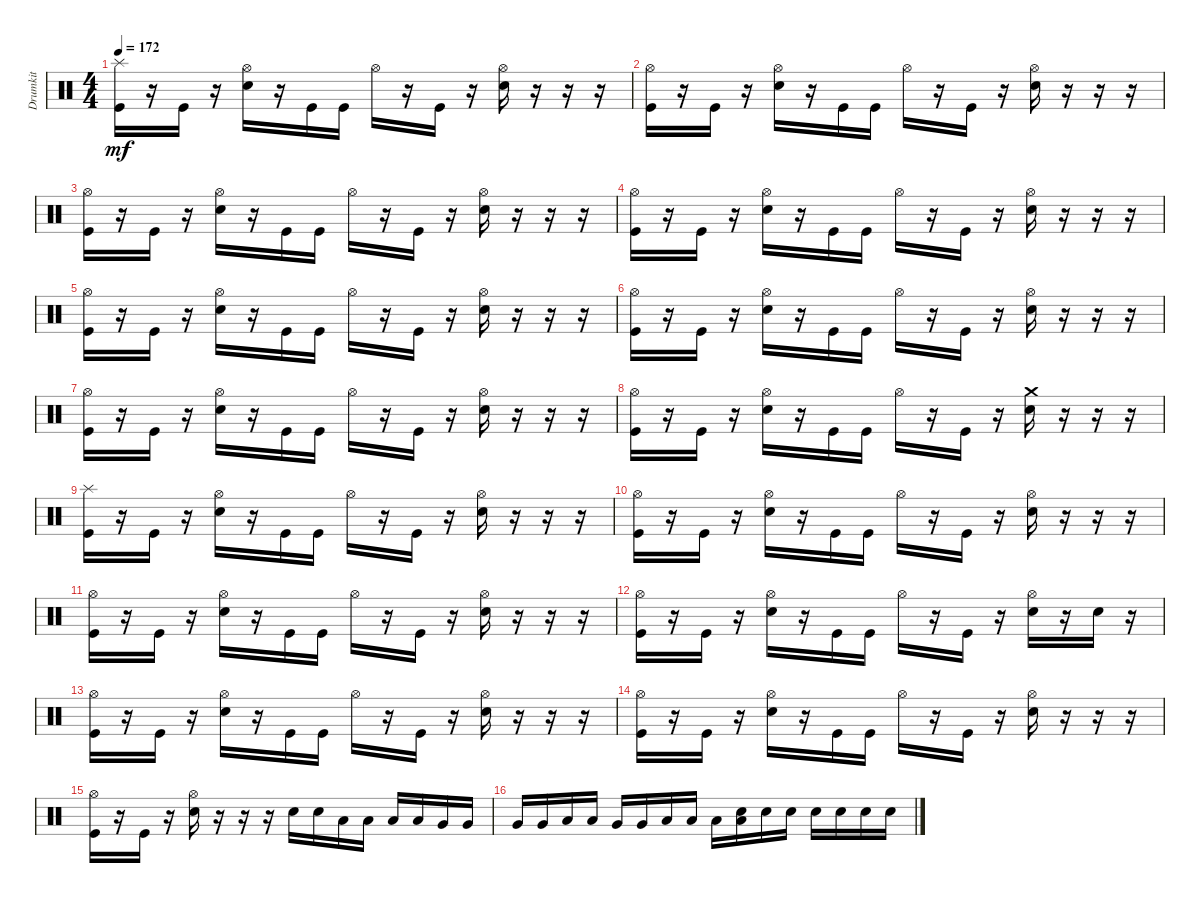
\track ("Drumkit" "Drumkit") {instrument percussion}
\staff {score}
\articulation defaults
\ts (4 4)
\tempo 172
\clef neutral
\ks c
("Kick (hit)" "Splash (hit)").16{dy mf} r.16 "Kick (hit)".16 r.16 ("Hi-Hat (open)" "Snare (hit) 2").16 r.16 "Kick (hit)".16 "Kick (hit)".16 "Hi-Hat (open)".16 r.16 "Kick (hit)".16 r.16 ("Hi-Hat (open)" "Snare (hit) 2").16 r.16 r.16 r.16 |
("Hi-Hat (open)" "Kick (hit)").16 r.16 "Kick (hit)".16 r.16 ("Hi-Hat (open)" "Snare (hit) 2").16 r.16 "Kick (hit)".16 "Kick (hit)".16 "Hi-Hat (open)".16 r.16 "Kick (hit)".16 r.16 ("Hi-Hat (open)" "Snare (hit) 2").16 r.16 r.16 r.16 |
("Hi-Hat (open)" "Kick (hit)").16 r.16 "Kick (hit)".16 r.16 ("Hi-Hat (open)" "Snare (hit) 2").16 r.16 "Kick (hit)".16 "Kick (hit)".16 "Hi-Hat (open)".16 r.16 "Kick (hit)".16 r.16 ("Hi-Hat (open)" "Snare (hit) 2").16 r.16 r.16 r.16 |
("Hi-Hat (open)" "Kick (hit)").16 r.16 "Kick (hit)".16 r.16 ("Hi-Hat (open)" "Snare (hit) 2").16 r.16 "Kick (hit)".16 "Kick (hit)".16 "Hi-Hat (open)".16 r.16 "Kick (hit)".16 r.16 ("Hi-Hat (open)" "Snare (hit) 2").16 r.16 r.16 r.16 |
("Hi-Hat (open)" "Kick (hit)").16 r.16 "Kick (hit)".16 r.16 ("Hi-Hat (open)" "Snare (hit) 2").16 r.16 "Kick (hit)".16 "Kick (hit)".16 "Hi-Hat (open)".16 r.16 "Kick (hit)".16 r.16 ("Hi-Hat (open)" "Snare (hit) 2").16 r.16 r.16 r.16 |
("Hi-Hat (open)" "Kick (hit)").16 r.16 "Kick (hit)".16 r.16 ("Hi-Hat (open)" "Snare (hit) 2").16 r.16 "Kick (hit)".16 "Kick (hit)".16 "Hi-Hat (open)".16 r.16 "Kick (hit)".16 r.16 ("Hi-Hat (open)" "Snare (hit) 2").16 r.16 r.16 r.16 |
("Hi-Hat (open)" "Kick (hit)").16 r.16 "Kick (hit)".16 r.16 ("Hi-Hat (open)" "Snare (hit) 2").16 r.16 "Kick (hit)".16 "Kick (hit)".16 "Hi-Hat (open)".16 r.16 "Kick (hit)".16 r.16 ("Hi-Hat (open)" "Snare (hit) 2").16 r.16 r.16 r.16 |
("Hi-Hat (open)" "Kick (hit)").16 r.16 "Kick (hit)".16 r.16 ("Hi-Hat (open)" "Snare (hit) 2").16 r.16 "Kick (hit)".16 "Kick (hit)".16 "Hi-Hat (open)".16 r.16 "Kick (hit)".16 r.16 ("Snare (hit) 2" "Crash medium (hit)").16 r.16 r.16 r.16 |
("Kick (hit)" "Splash (hit)").16 r.16 "Kick (hit)".16 r.16 ("Hi-Hat (open)" "Snare (hit) 2").16 r.16 "Kick (hit)".16 "Kick (hit)".16 "Hi-Hat (open)".16 r.16 "Kick (hit)".16 r.16 ("Hi-Hat (open)" "Snare (hit) 2").16 r.16 r.16 r.16 |
("Hi-Hat (open)" "Kick (hit)").16 r.16 "Kick (hit)".16 r.16 ("Hi-Hat (open)" "Snare (hit) 2").16 r.16 "Kick (hit)".16 "Kick (hit)".16 "Hi-Hat (open)".16 r.16 "Kick (hit)".16 r.16 ("Hi-Hat (open)" "Snare (hit) 2").16 r.16 r.16 r.16 |
("Hi-Hat (open)" "Kick (hit)").16 r.16 "Kick (hit)".16 r.16 ("Hi-Hat (open)" "Snare (hit) 2").16 r.16 "Kick (hit)".16 "Kick (hit)".16 "Hi-Hat (open)".16 r.16 "Kick (hit)".16 r.16 ("Hi-Hat (open)" "Snare (hit) 2").16 r.16 r.16 r.16 |
("Hi-Hat (open)" "Kick (hit)").16 r.16 "Kick (hit)".16 r.16 ("Hi-Hat (open)" "Snare (hit) 2").16 r.16 "Kick (hit)".16 "Kick (hit)".16 "Hi-Hat (open)".16 r.16 "Kick (hit)".16 r.16 ("Hi-Hat (open)" "Snare (hit) 2").16 r.16 "Snare (hit) 2".16 r.16 |
("Hi-Hat (open)" "Kick (hit)").16 r.16 "Kick (hit)".16 r.16 ("Hi-Hat (open)" "Snare (hit) 2").16 r.16 "Kick (hit)".16 "Kick (hit)".16 "Hi-Hat (open)".16 r.16 "Kick (hit)".16 r.16 ("Hi-Hat (open)" "Snare (hit) 2").16 r.16 r.16 r.16 |
("Hi-Hat (open)" "Kick (hit)").16 r.16 "Kick (hit)".16 r.16 ("Hi-Hat (open)" "Snare (hit) 2").16 r.16 "Kick (hit)".16 "Kick (hit)".16 "Hi-Hat (open)".16 r.16 "Kick (hit)".16 r.16 ("Hi-Hat (open)" "Snare (hit) 2").16 r.16 r.16 r.16 |
("Hi-Hat (open)" "Kick (hit)").16 r.16 "Kick (hit)".16 r.16 ("Hi-Hat (open)" "Snare (hit) 2").16 r.16 r.16 r.16 "Snare (hit) 2".16 "Snare (hit) 2".16 "Low Tom (hit)".16 "Low Tom (hit)".16 "Low Tom (hit)".16 "Low Tom (hit)".16 "Very Low Tom (hit)".16 "Very Low Tom (hit)".16 |
"Very Low Tom (hit)".16 "Very Low Tom (hit)".16 "Low Floor Tom (hit)".16 "Low Floor Tom (hit)".16 "Very Low Tom (hit)".16 "Very Low Tom (hit)".16 "Low Tom (hit)".16 "Low Tom (hit)".16 "Low Tom (hit)".16 ("Low Tom (hit)" "Snare (hit) 2").16 "Snare (hit) 2".16 "Snare (hit) 2".16 "Snare (hit) 2".16 "Snare (hit) 2".16 "Snare (hit) 2".16 "Snare (hit) 2".16
